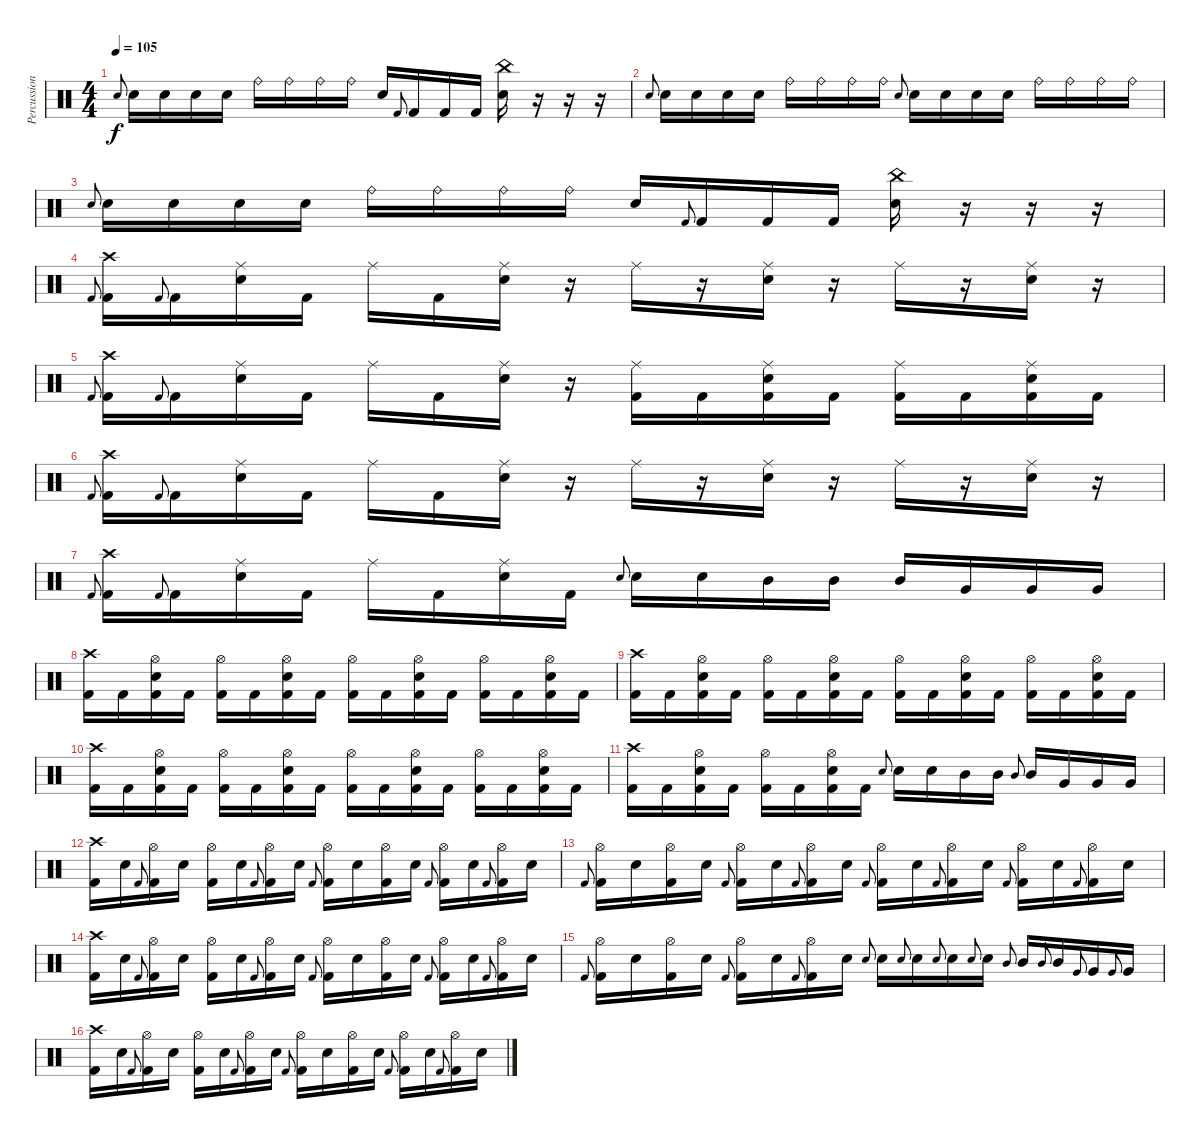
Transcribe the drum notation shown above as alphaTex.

\track ("Percussion" "Percussion") {instrument percussion}
\staff {score}
\articulation defaults
\ts (4 4)
\tempo 105
\clef neutral
\ks c "Snare (hit) 2".8{gr onbeat dy f} "Snare (hit) 2".16 "Snare (hit) 2".16 "Snare (hit) 2".16 "Snare (hit) 2".16 "Ride (bell)".16 "Ride (bell)".16 "Ride (bell)".16 "Ride (bell)".16 "Snare (hit) 2".16 "Kick (hit) 2".8{gr onbeat} "Kick (hit) 2".16 "Kick (hit) 2".16 "Kick (hit) 2".16
("China (hit)" "Snare (hit) 2").16 r.16 r.16 r.16 |
"Snare (hit) 2".8{gr onbeat} "Snare (hit) 2".16 "Snare (hit) 2".16 "Snare (hit) 2".16 "Snare (hit) 2".16 "Ride (bell)".16 "Ride (bell)".16 "Ride (bell)".16 "Ride (bell)".16 "Snare (hit) 2".8{gr onbeat} "Snare (hit) 2".16 "Snare (hit) 2".16 "Snare (hit) 2".16 "Snare (hit) 2".16 "Ride (bell)".16 "Ride (bell)".16 "Ride (bell)".16 "Ride (bell)".16 |
"Snare (hit) 2".8{gr onbeat} "Snare (hit) 2".16 "Snare (hit) 2".16 "Snare (hit) 2".16 "Snare (hit) 2".16 "Ride (bell)".16 "Ride (bell)".16 "Ride (bell)".16 "Ride (bell)".16 "Snare (hit) 2".16 "Kick (hit) 2".8{gr onbeat} "Kick (hit) 2".16 "Kick (hit) 2".16 "Kick (hit) 2".16 ("China (hit)" "Snare (hit) 2").16 r.16 r.16 r.16 |
"Kick (hit) 2".8{gr onbeat} ("Crash high (hit)" "Kick (hit) 2").16 "Kick (hit) 2".8{gr onbeat} "Kick (hit) 2".16 ("Ride (middle)" "Snare (hit) 2").16 "Kick (hit) 2".16 "Ride (middle)".16 "Kick (hit) 2".16 ("Ride (middle)" "Snare (hit) 2").16 r.16 "Ride (middle)".16 r.16 ("Ride (middle)" "Snare (hit) 2").16 r.16 "Ride (middle)".16 r.16 ("Ride (middle)" "Snare (hit) 2").16 r.16 |
"Kick (hit) 2".8{gr onbeat} ("Crash high (hit)" "Kick (hit) 2").16 "Kick (hit) 2".8{gr onbeat} "Kick (hit) 2".16 ("Ride (middle)" "Snare (hit) 2").16 "Kick (hit) 2".16 "Ride (middle)".16 "Kick (hit) 2".16 ("Ride (middle)" "Snare (hit) 2").16 r.16 ("Ride (middle)" "Kick (hit) 2").16 "Kick (hit) 2".16 ("Ride (middle)" "Snare (hit) 2" "Kick (hit) 2").16 "Kick (hit) 2".16 ("Ride (middle)" "Kick (hit) 2").16 "Kick (hit) 2".16 ("Ride (middle)" "Snare (hit) 2" "Kick (hit) 2").16 "Kick (hit) 2".16 |
"Kick (hit) 2".8{gr onbeat} ("Crash high (hit)" "Kick (hit) 2").16 "Kick (hit) 2".8{gr onbeat} "Kick (hit) 2".16 ("Ride (middle)" "Snare (hit) 2").16 "Kick (hit) 2".16 "Ride (middle)".16 "Kick (hit) 2".16 ("Ride (middle)" "Snare (hit) 2").16 r.16 "Ride (middle)".16 r.16 ("Ride (middle)" "Snare (hit) 2").16 r.16 "Ride (middle)".16 r.16 ("Ride (middle)" "Snare (hit) 2").16 r.16 |
"Kick (hit) 2".8{gr onbeat} ("Crash high (hit)" "Kick (hit) 2").16 "Kick (hit) 2".8{gr onbeat} "Kick (hit) 2".16 ("Ride (middle)" "Snare (hit) 2").16 "Kick (hit) 2".16 "Ride (middle)".16 "Kick (hit) 2".16 ("Ride (middle)" "Snare (hit) 2").16 "Kick (hit) 2".16 "Snare (hit) 2".8{gr onbeat} "Snare (hit) 2".16 "Snare (hit) 2".16 "Mid Tom (hit)".16 "Mid Tom (hit)".16 "Mid Tom (hit)".16 "Very Low Tom (hit)".16 "Very Low Tom (hit)".16 "Very Low Tom (hit)".16 |
("Crash high (hit)" "Kick (hit) 2").16 "Kick (hit) 2".16 ("Hi-Hat (open)" "Snare (hit) 2" "Kick (hit) 2").16 "Kick (hit) 2".16 ("Hi-Hat (open)" "Kick (hit) 2").16 "Kick (hit) 2".16 ("Hi-Hat (open)" "Snare (hit) 2" "Kick (hit) 2").16 "Kick (hit) 2".16 ("Hi-Hat (open)" "Kick (hit) 2").16 "Kick (hit) 2".16 ("Hi-Hat (open)" "Snare (hit) 2" "Kick (hit) 2").16 "Kick (hit) 2".16 ("Hi-Hat (open)" "Kick (hit) 2").16 "Kick (hit) 2".16 ("Hi-Hat (open)" "Snare (hit) 2" "Kick (hit) 2").16 "Kick (hit) 2".16 |
("Crash high (hit)" "Kick (hit) 2").16 "Kick (hit) 2".16 ("Hi-Hat (open)" "Snare (hit) 2" "Kick (hit) 2").16 "Kick (hit) 2".16 ("Hi-Hat (open)" "Kick (hit) 2").16 "Kick (hit) 2".16 ("Hi-Hat (open)" "Snare (hit) 2" "Kick (hit) 2").16 "Kick (hit) 2".16 ("Hi-Hat (open)" "Kick (hit) 2").16 "Kick (hit) 2".16 ("Hi-Hat (open)" "Snare (hit) 2" "Kick (hit) 2").16 "Kick (hit) 2".16 ("Hi-Hat (open)" "Kick (hit) 2").16 "Kick (hit) 2".16 ("Hi-Hat (open)" "Snare (hit) 2" "Kick (hit) 2").16 "Kick (hit) 2".16 |
("Crash high (hit)" "Kick (hit) 2").16 "Kick (hit) 2".16 ("Hi-Hat (open)" "Snare (hit) 2" "Kick (hit) 2").16 "Kick (hit) 2".16 ("Hi-Hat (open)" "Kick (hit) 2").16 "Kick (hit) 2".16 ("Hi-Hat (open)" "Snare (hit) 2" "Kick (hit) 2").16 "Kick (hit) 2".16 ("Hi-Hat (open)" "Kick (hit) 2").16 "Kick (hit) 2".16 ("Hi-Hat (open)" "Snare (hit) 2" "Kick (hit) 2").16 "Kick (hit) 2".16 ("Hi-Hat (open)" "Kick (hit) 2").16 "Kick (hit) 2".16 ("Hi-Hat (open)" "Snare (hit) 2" "Kick (hit) 2").16 "Kick (hit) 2".16 |
("Crash high (hit)" "Kick (hit) 2").16 "Kick (hit) 2".16 ("Hi-Hat (open)" "Snare (hit) 2" "Kick (hit) 2").16 "Kick (hit) 2".16 ("Hi-Hat (open)" "Kick (hit) 2").16 "Kick (hit) 2".16 ("Hi-Hat (open)" "Snare (hit) 2" "Kick (hit) 2").16 "Kick (hit) 2".16 "Snare (hit) 2".8{gr onbeat} "Snare (hit) 2".16 "Snare (hit) 2".16 "Mid Tom (hit)".16 "Mid Tom (hit)".16 "Mid Tom (hit)".8{gr onbeat} "Mid Tom (hit)".16 "Very Low Tom (hit)".16 "Very Low Tom (hit)".16 "Very Low Tom (hit)".16 |
("Crash high (hit)" "Kick (hit) 2").16 "Snare (hit) 2".16 "Kick (hit) 2".8{gr onbeat} ("Hi-Hat (open)" "Kick (hit) 2").16 "Snare (hit) 2".16 ("Hi-Hat (open)" "Kick (hit) 2").16 "Snare (hit) 2".16 "Kick (hit) 2".8{gr onbeat} ("Hi-Hat (open)" "Kick (hit) 2").16 "Snare (hit) 2".16 "Kick (hit) 2".8{gr onbeat} ("Hi-Hat (open)" "Kick (hit) 2").16 "Snare (hit) 2".16 ("Hi-Hat (open)" "Kick (hit) 2").16 "Snare (hit) 2".16 "Kick (hit) 2".8{gr onbeat} ("Hi-Hat (open)" "Kick (hit) 2").16 "Snare (hit) 2".16 "Kick (hit) 2".8{gr onbeat} ("Hi-Hat (open)" "Kick (hit) 2").16 "Snare (hit) 2".16 |
"Kick (hit) 2".8{gr onbeat} ("Hi-Hat (open)" "Kick (hit) 2").16 "Snare (hit) 2".16 ("Hi-Hat (open)" "Kick (hit) 2").16 "Snare (hit) 2".16 "Kick (hit) 2".8{gr onbeat} ("Hi-Hat (open)" "Kick (hit) 2").16 "Snare (hit) 2".16 "Kick (hit) 2".8{gr onbeat} ("Hi-Hat (open)" "Kick (hit) 2").16 "Snare (hit) 2".16 "Kick (hit) 2".8{gr onbeat} ("Hi-Hat (open)" "Kick (hit) 2").16 "Snare (hit) 2".16 "Kick (hit) 2".8{gr onbeat} ("Hi-Hat (open)" "Kick (hit) 2").16 "Snare (hit) 2".16 "Kick (hit) 2".8{gr onbeat} ("Hi-Hat (open)" "Kick (hit) 2").16 "Snare (hit) 2".16 "Kick (hit) 2".8{gr onbeat} ("Hi-Hat (open)" "Kick (hit) 2").16 "Snare (hit) 2".16 |
("Crash high (hit)" "Kick (hit) 2").16 "Snare (hit) 2".16 "Kick (hit) 2".8{gr onbeat} ("Hi-Hat (open)" "Kick (hit) 2").16 "Snare (hit) 2".16 ("Hi-Hat (open)" "Kick (hit) 2").16 "Snare (hit) 2".16 "Kick (hit) 2".8{gr onbeat} ("Hi-Hat (open)" "Kick (hit) 2").16 "Snare (hit) 2".16 "Kick (hit) 2".8{gr onbeat} ("Hi-Hat (open)" "Kick (hit) 2").16 "Snare (hit) 2".16 ("Hi-Hat (open)" "Kick (hit) 2").16 "Snare (hit) 2".16 "Kick (hit) 2".8{gr onbeat} ("Hi-Hat (open)" "Kick (hit) 2").16 "Snare (hit) 2".16 "Kick (hit) 2".8{gr onbeat} ("Hi-Hat (open)" "Kick (hit) 2").16 "Snare (hit) 2".16 |
"Kick (hit) 2".8{gr onbeat} ("Hi-Hat (open)" "Kick (hit) 2").16 "Snare (hit) 2".16 ("Hi-Hat (open)" "Kick (hit) 2").16 "Snare (hit) 2".16 "Kick (hit) 2".8{gr onbeat} ("Hi-Hat (open)" "Kick (hit) 2").16 "Snare (hit) 2".16 "Kick (hit) 2".8{gr onbeat} ("Hi-Hat (open)" "Kick (hit) 2").16 "Snare (hit) 2".16 "Snare (hit) 2".8{gr onbeat} "Snare (hit) 2".16 "Snare (hit) 2".8{gr onbeat} "Snare (hit) 2".16 "Snare (hit) 2".8{gr onbeat} "Snare (hit) 2".16 "Snare (hit) 2".8{gr onbeat} "Snare (hit) 2".16 "Mid Tom (hit)".8{gr onbeat} "Mid Tom (hit)".16 "Mid Tom (hit)".8{gr onbeat} "Mid Tom (hit)".16 "Very Low Tom (hit)".8{gr onbeat} "Very Low Tom (hit)".16 "Very Low Tom (hit)".8{gr onbeat} "Very Low Tom (hit)".16 |
("Crash high (hit)" "Kick (hit) 2").16 "Snare (hit) 2".16 "Kick (hit) 2".8{gr onbeat} ("Hi-Hat (open)" "Kick (hit) 2").16 "Snare (hit) 2".16 ("Hi-Hat (open)" "Kick (hit) 2").16 "Snare (hit) 2".16 "Kick (hit) 2".8{gr onbeat} ("Hi-Hat (open)" "Kick (hit) 2").16 "Snare (hit) 2".16 "Kick (hit) 2".8{gr onbeat} ("Hi-Hat (open)" "Kick (hit) 2").16 "Snare (hit) 2".16 ("Hi-Hat (open)" "Kick (hit) 2").16 "Snare (hit) 2".16 "Kick (hit) 2".8{gr onbeat} ("Hi-Hat (open)" "Kick (hit) 2").16 "Snare (hit) 2".16 "Kick (hit) 2".8{gr onbeat} ("Hi-Hat (open)" "Kick (hit) 2").16 "Snare (hit) 2".16
